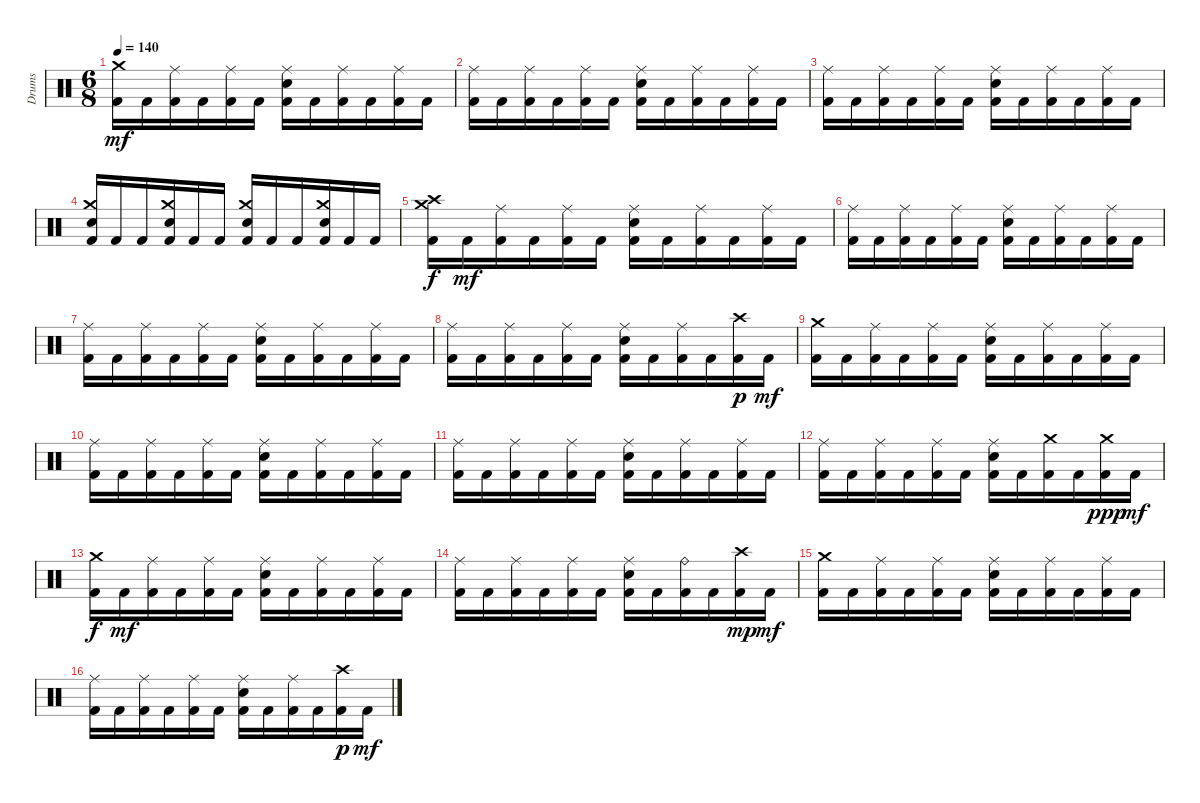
\track ("Drums" "Drums") {instrument percussion}
\staff {score}
\articulation defaults
\ts (6 8)
\tempo 140
\clef neutral
\ks c
("Kick (hit) 2" "Crash medium (hit)").16{dy mf} "Kick (hit) 2".16 ("Kick (hit) 2" "Ride (middle)").16 "Kick (hit) 2".16 ("Kick (hit) 2" "Ride (middle)").16 "Kick (hit) 2".16 ("Kick (hit) 2" "Electric Snare (hit)" "Ride (middle)").16 "Kick (hit) 2".16 ("Kick (hit) 2" "Ride (middle)").16 "Kick (hit) 2".16 ("Kick (hit) 2" "Ride (middle)").16 "Kick (hit) 2".16 |
("Kick (hit) 2" "Ride (middle)").16 "Kick (hit) 2".16 ("Kick (hit) 2" "Ride (middle)").16 "Kick (hit) 2".16 ("Kick (hit) 2" "Ride (middle)").16 "Kick (hit) 2".16 ("Kick (hit) 2" "Electric Snare (hit)" "Ride (middle)").16 "Kick (hit) 2".16 ("Kick (hit) 2" "Ride (middle)").16 "Kick (hit) 2".16 ("Kick (hit) 2" "Ride (middle)").16 "Kick (hit) 2".16 |
("Kick (hit) 2" "Ride (middle)").16 "Kick (hit) 2".16 ("Kick (hit) 2" "Ride (middle)").16 "Kick (hit) 2".16 ("Kick (hit) 2" "Ride (middle)").16 "Kick (hit) 2".16 ("Kick (hit) 2" "Electric Snare (hit)" "Ride (middle)").16 "Kick (hit) 2".16 ("Kick (hit) 2" "Ride (middle)").16 "Kick (hit) 2".16 ("Kick (hit) 2" "Ride (middle)").16 "Kick (hit) 2".16 |
("Kick (hit) 2" "Electric Snare (hit)" "Crash medium (hit)").16 "Kick (hit) 2".16 "Kick (hit) 2".16 ("Kick (hit) 2" "Electric Snare (hit)" "Crash medium (hit)").16 "Kick (hit) 2".16 "Kick (hit) 2".16 ("Kick (hit) 2" "Electric Snare (hit)" "Crash medium (hit)").16 "Kick (hit) 2".16 "Kick (hit) 2".16 ("Kick (hit) 2" "Electric Snare (hit)" "Crash medium (hit)").16 "Kick (hit) 2".16 "Kick (hit) 2".16 |
("Kick (hit) 2" "Crash high (hit)" "Crash medium (hit)").16{dy f} "Kick (hit) 2".16{dy mf} ("Kick (hit) 2" "Ride (middle)").16 "Kick (hit) 2".16 ("Kick (hit) 2" "Ride (middle)").16 "Kick (hit) 2".16 ("Kick (hit) 2" "Electric Snare (hit)" "Ride (middle)").16 "Kick (hit) 2".16 ("Kick (hit) 2" "Ride (middle)").16 "Kick (hit) 2".16 ("Kick (hit) 2" "Ride (middle)").16 "Kick (hit) 2".16 |
("Kick (hit) 2" "Ride (middle)").16 "Kick (hit) 2".16 ("Kick (hit) 2" "Ride (middle)").16 "Kick (hit) 2".16 ("Kick (hit) 2" "Ride (middle)").16 "Kick (hit) 2".16 ("Kick (hit) 2" "Electric Snare (hit)" "Ride (middle)").16 "Kick (hit) 2".16 ("Kick (hit) 2" "Ride (middle)").16 "Kick (hit) 2".16 ("Kick (hit) 2" "Ride (middle)").16 "Kick (hit) 2".16 |
("Kick (hit) 2" "Ride (middle)").16 "Kick (hit) 2".16 ("Kick (hit) 2" "Ride (middle)").16 "Kick (hit) 2".16 ("Kick (hit) 2" "Ride (middle)").16 "Kick (hit) 2".16 ("Kick (hit) 2" "Electric Snare (hit)" "Ride (middle)").16 "Kick (hit) 2".16 ("Kick (hit) 2" "Ride (middle)").16 "Kick (hit) 2".16 ("Kick (hit) 2" "Ride (middle)").16 "Kick (hit) 2".16 |
("Kick (hit) 2" "Ride (middle)").16 "Kick (hit) 2".16 ("Kick (hit) 2" "Ride (middle)").16 "Kick (hit) 2".16 ("Kick (hit) 2" "Ride (middle)").16 "Kick (hit) 2".16 ("Kick (hit) 2" "Electric Snare (hit)" "Ride (middle)").16 "Kick (hit) 2".16 ("Kick (hit) 2" "Ride (middle)").16 "Kick (hit) 2".16 ("Kick (hit) 2" "Crash high (hit)").16{dy p} "Kick (hit) 2".16{dy mf} |
("Kick (hit) 2" "Crash medium (hit)").16 "Kick (hit) 2".16 ("Kick (hit) 2" "Ride (middle)").16 "Kick (hit) 2".16 ("Kick (hit) 2" "Ride (middle)").16 "Kick (hit) 2".16 ("Kick (hit) 2" "Electric Snare (hit)" "Ride (middle)").16 "Kick (hit) 2".16 ("Kick (hit) 2" "Ride (middle)").16 "Kick (hit) 2".16 ("Kick (hit) 2" "Ride (middle)").16 "Kick (hit) 2".16 |
("Kick (hit) 2" "Ride (middle)").16 "Kick (hit) 2".16 ("Kick (hit) 2" "Ride (middle)").16 "Kick (hit) 2".16 ("Kick (hit) 2" "Ride (middle)").16 "Kick (hit) 2".16 ("Kick (hit) 2" "Electric Snare (hit)" "Ride (middle)").16 "Kick (hit) 2".16 ("Kick (hit) 2" "Ride (middle)").16 "Kick (hit) 2".16 ("Kick (hit) 2" "Ride (middle)").16 "Kick (hit) 2".16 |
("Kick (hit) 2" "Ride (middle)").16 "Kick (hit) 2".16 ("Kick (hit) 2" "Ride (middle)").16 "Kick (hit) 2".16 ("Kick (hit) 2" "Ride (middle)").16 "Kick (hit) 2".16 ("Kick (hit) 2" "Electric Snare (hit)" "Ride (middle)").16 "Kick (hit) 2".16 ("Kick (hit) 2" "Ride (middle)").16 "Kick (hit) 2".16 ("Kick (hit) 2" "Ride (middle)").16 "Kick (hit) 2".16 |
("Kick (hit) 2" "Ride (middle)").16 "Kick (hit) 2".16 ("Kick (hit) 2" "Ride (middle)").16 "Kick (hit) 2".16 ("Kick (hit) 2" "Ride (middle)").16 "Kick (hit) 2".16 ("Kick (hit) 2" "Electric Snare (hit)" "Ride (middle)").16 "Kick (hit) 2".16 ("Kick (hit) 2" "Crash medium (hit)").16 "Kick (hit) 2".16 ("Kick (hit) 2" "Crash medium (hit)").16{dy ppp} "Kick (hit) 2".16{dy mf} |
("Kick (hit) 2" "Crash medium (hit)").16{dy f} "Kick (hit) 2".16{dy mf} ("Kick (hit) 2" "Ride (middle)").16 "Kick (hit) 2".16 ("Kick (hit) 2" "Ride (middle)").16 "Kick (hit) 2".16 ("Kick (hit) 2" "Electric Snare (hit)" "Ride (middle)").16 "Kick (hit) 2".16 ("Kick (hit) 2" "Ride (middle)").16 "Kick (hit) 2".16 ("Kick (hit) 2" "Ride (middle)").16 "Kick (hit) 2".16 |
("Kick (hit) 2" "Ride (middle)").16 "Kick (hit) 2".16 ("Kick (hit) 2" "Ride (middle)").16 "Kick (hit) 2".16 ("Kick (hit) 2" "Ride (middle)").16 "Kick (hit) 2".16 ("Kick (hit) 2" "Electric Snare (hit)" "Ride (middle)").16 "Kick (hit) 2".16 ("Kick (hit) 2" "Ride (bell)").16 "Kick (hit) 2".16 ("Kick (hit) 2" "Crash high (hit)").16{dy mp} "Kick (hit) 2".16{dy mf} |
("Kick (hit) 2" "Crash medium (hit)").16 "Kick (hit) 2".16 ("Kick (hit) 2" "Ride (middle)").16 "Kick (hit) 2".16 ("Kick (hit) 2" "Ride (middle)").16 "Kick (hit) 2".16 ("Kick (hit) 2" "Electric Snare (hit)" "Ride (middle)").16 "Kick (hit) 2".16 ("Kick (hit) 2" "Ride (middle)").16 "Kick (hit) 2".16 ("Kick (hit) 2" "Ride (middle)").16 "Kick (hit) 2".16 |
("Kick (hit) 2" "Ride (middle)").16 "Kick (hit) 2".16 ("Kick (hit) 2" "Ride (middle)").16 "Kick (hit) 2".16 ("Kick (hit) 2" "Ride (middle)").16 "Kick (hit) 2".16 ("Kick (hit) 2" "Electric Snare (hit)" "Ride (middle)").16 "Kick (hit) 2".16 ("Kick (hit) 2" "Ride (middle)").16 "Kick (hit) 2".16 ("Kick (hit) 2" "Crash high (hit)").16{dy p} "Kick (hit) 2".16{dy mf}
